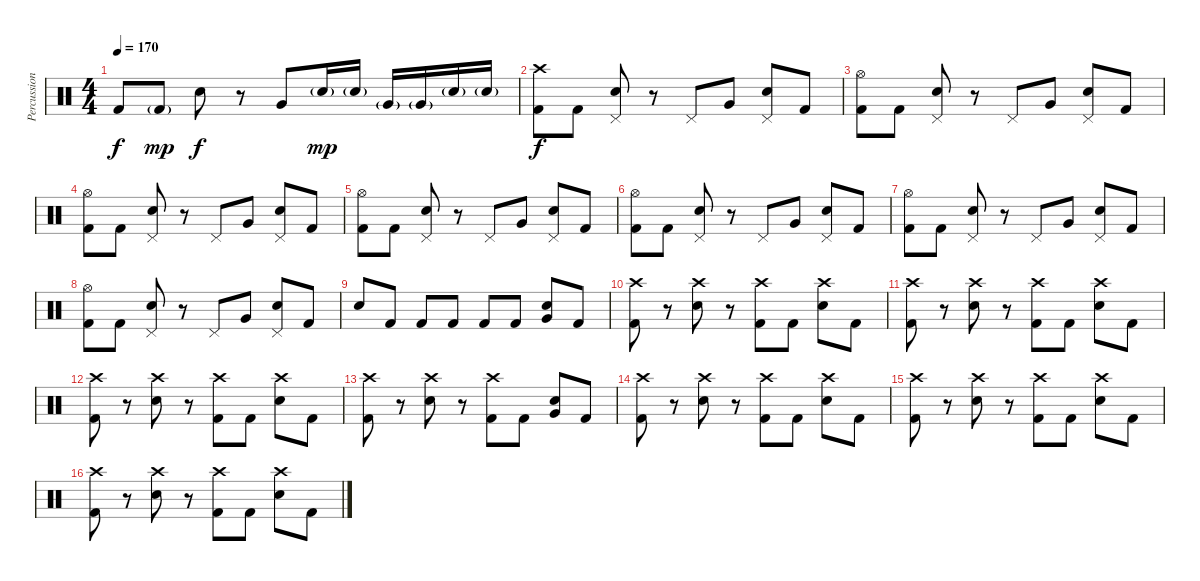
\track ("Percussion" "Percussion") {instrument percussion}
\staff {score}
\articulation defaults
\ts (4 4)
\tempo 170
\clef neutral
\ks c "Kick (hit) 2".8{dy f} "Kick (hit) 2"{g}.8{dy mp} "Electric Snare (hit)".8{dy f}
r.8 "Very Low Tom (hit)".8 "Electric Snare (hit)"{g}.16{dy mp} "Electric Snare (hit)"{g}.16 "Very Low Tom (hit)"{g}.16 "Very Low Tom (hit)"{g}.16 "Electric Snare (hit)"{g}.16 "Electric Snare (hit)"{g}.16 |
("Crash high (hit)" "Kick (hit) 2").8{dy f} "Kick (hit) 2".8 ("Pedal Hi-Hat (hit)" "Electric Snare (hit)").8 r.8 "Pedal Hi-Hat (hit)".8 "Very Low Tom (hit)".8 ("Pedal Hi-Hat (hit)" "Electric Snare (hit)").8 "Kick (hit) 2".8 |
("Hi-Hat (open)" "Kick (hit) 2").8 "Kick (hit) 2".8 ("Pedal Hi-Hat (hit)" "Electric Snare (hit)").8 r.8 "Pedal Hi-Hat (hit)".8 "Very Low Tom (hit)".8 ("Pedal Hi-Hat (hit)" "Electric Snare (hit)").8 "Kick (hit) 2".8 |
("Hi-Hat (open)" "Kick (hit) 2").8 "Kick (hit) 2".8 ("Pedal Hi-Hat (hit)" "Electric Snare (hit)").8 r.8 "Pedal Hi-Hat (hit)".8 "Very Low Tom (hit)".8 ("Pedal Hi-Hat (hit)" "Electric Snare (hit)").8 "Kick (hit) 2".8 |
("Hi-Hat (open)" "Kick (hit) 2").8 "Kick (hit) 2".8 ("Pedal Hi-Hat (hit)" "Electric Snare (hit)").8 r.8 "Pedal Hi-Hat (hit)".8 "Very Low Tom (hit)".8 ("Pedal Hi-Hat (hit)" "Electric Snare (hit)").8 "Kick (hit) 2".8 |
("Hi-Hat (open)" "Kick (hit) 2").8 "Kick (hit) 2".8 ("Pedal Hi-Hat (hit)" "Electric Snare (hit)").8 r.8 "Pedal Hi-Hat (hit)".8 "Very Low Tom (hit)".8 ("Pedal Hi-Hat (hit)" "Electric Snare (hit)").8 "Kick (hit) 2".8 |
("Hi-Hat (open)" "Kick (hit) 2").8 "Kick (hit) 2".8 ("Pedal Hi-Hat (hit)" "Electric Snare (hit)").8 r.8 "Pedal Hi-Hat (hit)".8 "Very Low Tom (hit)".8 ("Pedal Hi-Hat (hit)" "Electric Snare (hit)").8 "Kick (hit) 2".8 |
("Hi-Hat (open)" "Kick (hit) 2").8 "Kick (hit) 2".8 ("Pedal Hi-Hat (hit)" "Electric Snare (hit)").8 r.8 "Pedal Hi-Hat (hit)".8 "Very Low Tom (hit)".8 ("Pedal Hi-Hat (hit)" "Electric Snare (hit)").8 "Kick (hit) 2".8 |
"Electric Snare (hit)".8 "Kick (hit) 2".8 "Kick (hit) 2".8 "Kick (hit) 2".8 "Kick (hit) 2".8 "Kick (hit) 2".8 ("Very Low Tom (hit)" "Electric Snare (hit)").8 "Kick (hit) 2".8 |
("Crash high (hit)" "Kick (hit) 2").8 r.8 ("Crash high (hit)" "Electric Snare (hit)").8 r.8 ("Crash high (hit)" "Kick (hit) 2").8 "Kick (hit) 2".8 ("Crash high (hit)" "Electric Snare (hit)").8 "Kick (hit) 2".8 |
("Crash high (hit)" "Kick (hit) 2").8 r.8 ("Crash high (hit)" "Electric Snare (hit)").8 r.8 ("Crash high (hit)" "Kick (hit) 2").8 "Kick (hit) 2".8 ("Crash high (hit)" "Electric Snare (hit)").8 "Kick (hit) 2".8 |
("Crash high (hit)" "Kick (hit) 2").8 r.8 ("Crash high (hit)" "Electric Snare (hit)").8 r.8 ("Crash high (hit)" "Kick (hit) 2").8 "Kick (hit) 2".8 ("Crash high (hit)" "Electric Snare (hit)").8 "Kick (hit) 2".8 |
("Crash high (hit)" "Kick (hit) 2").8 r.8 ("Crash high (hit)" "Electric Snare (hit)").8 r.8 ("Crash high (hit)" "Kick (hit) 2").8 "Kick (hit) 2".8 ("Very Low Tom (hit)" "Electric Snare (hit)").8 "Kick (hit) 2".8 |
("Crash high (hit)" "Kick (hit) 2").8 r.8 ("Crash high (hit)" "Electric Snare (hit)").8 r.8 ("Crash high (hit)" "Kick (hit) 2").8 "Kick (hit) 2".8 ("Crash high (hit)" "Electric Snare (hit)").8 "Kick (hit) 2".8 |
("Crash high (hit)" "Kick (hit) 2").8 r.8 ("Crash high (hit)" "Electric Snare (hit)").8 r.8 ("Crash high (hit)" "Kick (hit) 2").8 "Kick (hit) 2".8 ("Crash high (hit)" "Electric Snare (hit)").8 "Kick (hit) 2".8 |
("Crash high (hit)" "Kick (hit) 2").8 r.8 ("Crash high (hit)" "Electric Snare (hit)").8 r.8 ("Crash high (hit)" "Kick (hit) 2").8 "Kick (hit) 2".8 ("Crash high (hit)" "Electric Snare (hit)").8 "Kick (hit) 2".8
